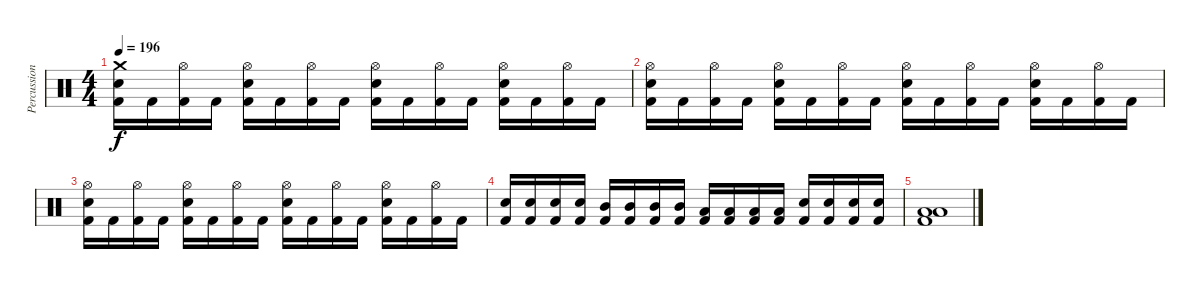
\track ("Percussion" "Percussion") {instrument percussion}
\staff {score}
\articulation defaults
\ts (4 4)
\tempo 196
\clef neutral
\ks c
("Crash medium (hit)" "Snare (hit) 2" "Kick (hit) 2").16{dy f} "Kick (hit) 2".16 ("Hi-Hat (open)" "Kick (hit) 2").16 "Kick (hit) 2".16 ("Hi-Hat (open)" "Snare (hit) 2" "Kick (hit) 2").16 "Kick (hit) 2".16 ("Hi-Hat (open)" "Kick (hit) 2").16 "Kick (hit) 2".16 ("Hi-Hat (open)" "Snare (hit) 2" "Kick (hit) 2").16 "Kick (hit) 2".16 ("Hi-Hat (open)" "Kick (hit) 2").16 "Kick (hit) 2".16 ("Hi-Hat (open)" "Snare (hit) 2" "Kick (hit) 2").16 "Kick (hit) 2".16 ("Hi-Hat (open)" "Kick (hit) 2").16 "Kick (hit) 2".16 |
("Hi-Hat (open)" "Snare (hit) 2" "Kick (hit) 2").16 "Kick (hit) 2".16 ("Hi-Hat (open)" "Kick (hit) 2").16 "Kick (hit) 2".16 ("Hi-Hat (open)" "Snare (hit) 2" "Kick (hit) 2").16 "Kick (hit) 2".16 ("Hi-Hat (open)" "Kick (hit) 2").16 "Kick (hit) 2".16 ("Hi-Hat (open)" "Snare (hit) 2" "Kick (hit) 2").16 "Kick (hit) 2".16 ("Hi-Hat (open)" "Kick (hit) 2").16 "Kick (hit) 2".16 ("Hi-Hat (open)" "Snare (hit) 2" "Kick (hit) 2").16 "Kick (hit) 2".16 ("Hi-Hat (open)" "Kick (hit) 2").16 "Kick (hit) 2".16 |
("Hi-Hat (open)" "Snare (hit) 2" "Kick (hit) 2").16 "Kick (hit) 2".16 ("Hi-Hat (open)" "Kick (hit) 2").16 "Kick (hit) 2".16 ("Hi-Hat (open)" "Snare (hit) 2" "Kick (hit) 2").16 "Kick (hit) 2".16 ("Hi-Hat (open)" "Kick (hit) 2").16 "Kick (hit) 2".16 ("Hi-Hat (open)" "Snare (hit) 2" "Kick (hit) 2").16 "Kick (hit) 2".16 ("Hi-Hat (open)" "Kick (hit) 2").16 "Kick (hit) 2".16 ("Hi-Hat (open)" "Snare (hit) 2" "Kick (hit) 2").16 "Kick (hit) 2".16 ("Hi-Hat (open)" "Kick (hit) 2").16 "Kick (hit) 2".16 |
("Snare (hit) 2" "Kick (hit) 2").16 ("Snare (hit) 2" "Kick (hit) 2").16 ("Snare (hit) 2" "Kick (hit) 2").16 ("Snare (hit) 2" "Kick (hit) 2").16 ("Mid Tom (hit)" "Kick (hit) 2").16 ("Mid Tom (hit)" "Kick (hit) 2").16 ("Mid Tom (hit)" "Kick (hit) 2").16 ("Mid Tom (hit)" "Kick (hit) 2").16 ("Low Tom (hit)" "Kick (hit) 2").16 ("Low Tom (hit)" "Kick (hit) 2").16 ("Low Tom (hit)" "Kick (hit) 2").16 ("Low Tom (hit)" "Kick (hit) 2").16 ("Snare (hit) 2" "Kick (hit) 2").16 ("Snare (hit) 2" "Kick (hit) 2").16 ("Snare (hit) 2" "Kick (hit) 2").16 ("Snare (hit) 2" "Kick (hit) 2").16 |
("Low Tom (hit)" "Low Floor Tom (hit)" "Kick (hit) 2").1
